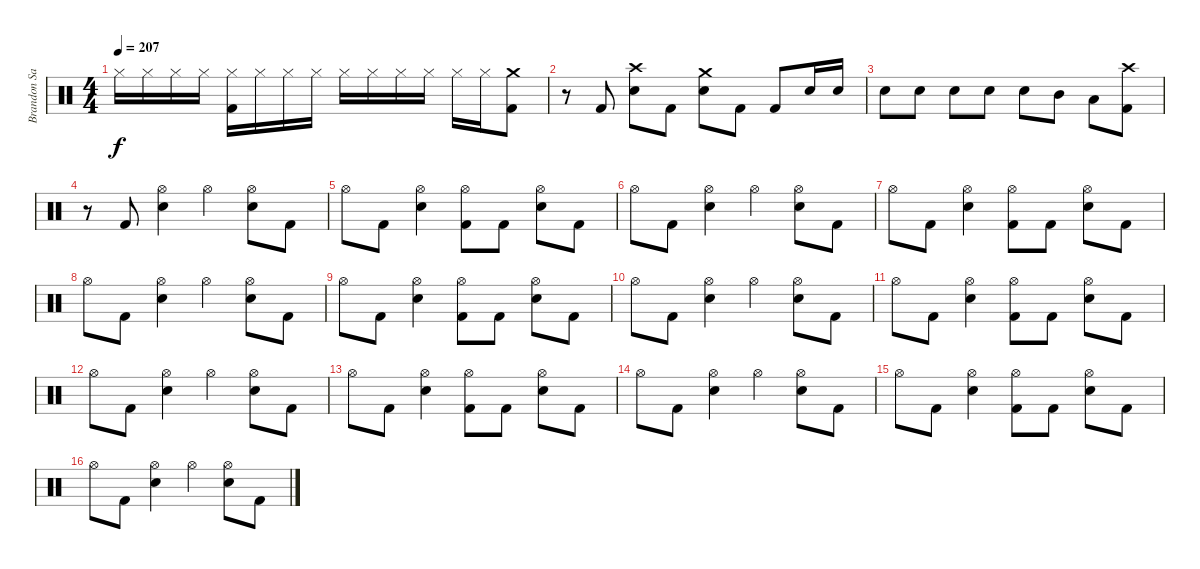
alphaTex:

\track ("Brandon Saller" "Brandon Sa") {instrument percussion}
\staff {score}
\articulation defaults
\ts (4 4)
\tempo 207
\clef neutral
\ks c "Hi-Hat (closed)".16{dy f} "Hi-Hat (closed)".16 "Hi-Hat (closed)".16 "Hi-Hat (closed)".16
("Hi-Hat (closed)" "Kick (hit) 2").16 "Hi-Hat (closed)".16 "Hi-Hat (closed)".16 "Hi-Hat (closed)".16 "Hi-Hat (closed)".16 "Hi-Hat (closed)".16 "Hi-Hat (closed)".16 "Hi-Hat (closed)".16 "Hi-Hat (closed)".16 "Hi-Hat (closed)".16 ("Crash medium (hit)" "Kick (hit) 2").8 |
r.8 "Kick (hit) 2".8 ("Crash high (hit)" "Electric Snare (hit)").8 "Kick (hit) 2".8 ("Crash medium (hit)" "Electric Snare (hit)").8 "Kick (hit) 2".8 "Kick (hit) 2".8 "Electric Snare (hit)".16 "Electric Snare (hit)".16 |
"Electric Snare (hit)".8 "Electric Snare (hit)".8 "Electric Snare (hit)".8 "Electric Snare (hit)".8 "Electric Snare (hit)".8 "Mid Tom (hit)".8 "Low Tom (hit)".8 ("Crash high (hit)" "Kick (hit) 2").8 |
r.8 "Kick (hit) 2".8 ("Hi-Hat (open)" "Electric Snare (hit)").4 "Hi-Hat (open)".4 ("Hi-Hat (open)" "Electric Snare (hit)").8 "Kick (hit) 2".8 |
"Hi-Hat (open)".8 "Kick (hit) 2".8 ("Hi-Hat (open)" "Electric Snare (hit)").4 ("Hi-Hat (open)" "Kick (hit) 2").8 "Kick (hit) 2".8 ("Hi-Hat (open)" "Electric Snare (hit)").8 "Kick (hit) 2".8 |
"Hi-Hat (open)".8 "Kick (hit) 2".8 ("Hi-Hat (open)" "Electric Snare (hit)").4 "Hi-Hat (open)".4 ("Hi-Hat (open)" "Electric Snare (hit)").8 "Kick (hit) 2".8 |
"Hi-Hat (open)".8 "Kick (hit) 2".8 ("Hi-Hat (open)" "Electric Snare (hit)").4 ("Hi-Hat (open)" "Kick (hit) 2").8 "Kick (hit) 2".8 ("Hi-Hat (open)" "Electric Snare (hit)").8 "Kick (hit) 2".8 |
"Hi-Hat (open)".8 "Kick (hit) 2".8 ("Hi-Hat (open)" "Electric Snare (hit)").4 "Hi-Hat (open)".4 ("Hi-Hat (open)" "Electric Snare (hit)").8 "Kick (hit) 2".8 |
"Hi-Hat (open)".8 "Kick (hit) 2".8 ("Hi-Hat (open)" "Electric Snare (hit)").4 ("Hi-Hat (open)" "Kick (hit) 2").8 "Kick (hit) 2".8 ("Hi-Hat (open)" "Electric Snare (hit)").8 "Kick (hit) 2".8 |
"Hi-Hat (open)".8 "Kick (hit) 2".8 ("Hi-Hat (open)" "Electric Snare (hit)").4 "Hi-Hat (open)".4 ("Hi-Hat (open)" "Electric Snare (hit)").8 "Kick (hit) 2".8 |
"Hi-Hat (open)".8 "Kick (hit) 2".8 ("Hi-Hat (open)" "Electric Snare (hit)").4 ("Hi-Hat (open)" "Kick (hit) 2").8 "Kick (hit) 2".8 ("Hi-Hat (open)" "Electric Snare (hit)").8 "Kick (hit) 2".8 |
"Hi-Hat (open)".8 "Kick (hit) 2".8 ("Hi-Hat (open)" "Electric Snare (hit)").4 "Hi-Hat (open)".4 ("Hi-Hat (open)" "Electric Snare (hit)").8 "Kick (hit) 2".8 |
"Hi-Hat (open)".8 "Kick (hit) 2".8 ("Hi-Hat (open)" "Electric Snare (hit)").4 ("Hi-Hat (open)" "Kick (hit) 2").8 "Kick (hit) 2".8 ("Hi-Hat (open)" "Electric Snare (hit)").8 "Kick (hit) 2".8 |
"Hi-Hat (open)".8 "Kick (hit) 2".8 ("Hi-Hat (open)" "Electric Snare (hit)").4 "Hi-Hat (open)".4 ("Hi-Hat (open)" "Electric Snare (hit)").8 "Kick (hit) 2".8 |
"Hi-Hat (open)".8 "Kick (hit) 2".8 ("Hi-Hat (open)" "Electric Snare (hit)").4 ("Hi-Hat (open)" "Kick (hit) 2").8 "Kick (hit) 2".8 ("Hi-Hat (open)" "Electric Snare (hit)").8 "Kick (hit) 2".8 |
"Hi-Hat (open)".8 "Kick (hit) 2".8 ("Hi-Hat (open)" "Electric Snare (hit)").4 "Hi-Hat (open)".4 ("Hi-Hat (open)" "Electric Snare (hit)").8 "Kick (hit) 2".8
